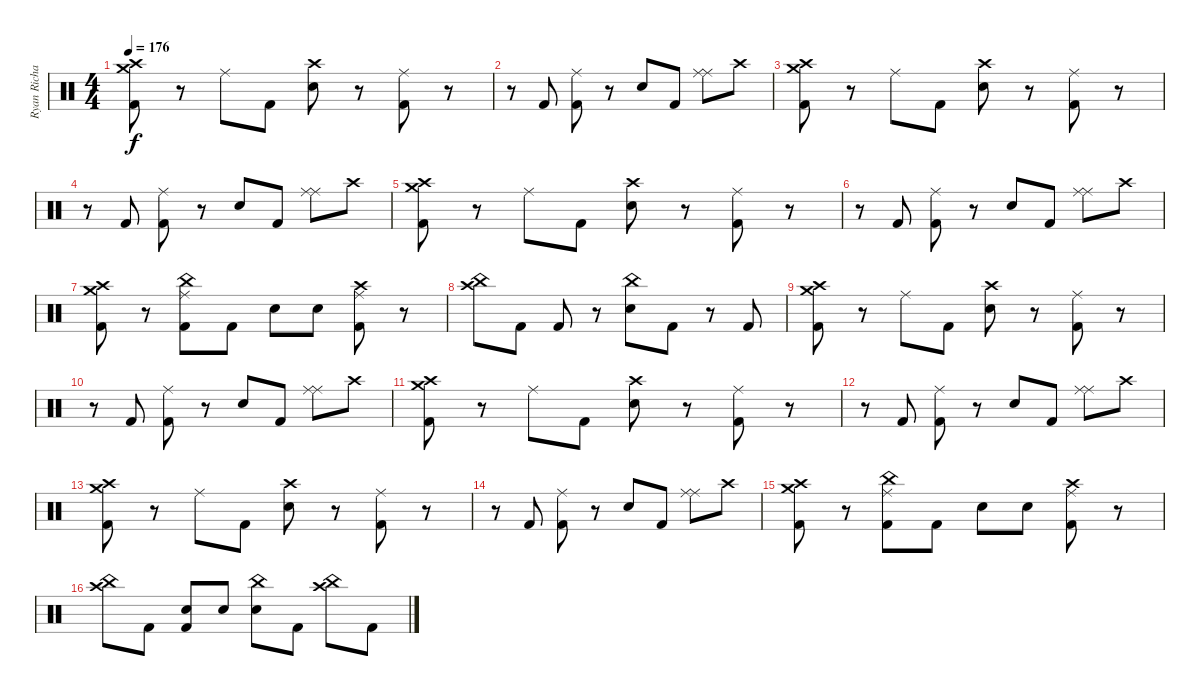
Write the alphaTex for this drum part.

\track ("Ryan Richards (drums)" "Ryan Richa") {instrument percussion}
\staff {score}
\articulation defaults
\ts (4 4)
\tempo 176
\clef neutral
\ks c
("Crash high (hit)" "Crash medium (hit)" "Kick (hit) 2").8{dy f} r.8 "Ride (middle)".8 "Kick (hit) 2".8 ("Crash high (hit)" "Snare (hit) 2").8 r.8 ("Ride (middle)" "Kick (hit) 2").8 r.8 |
r.8 "Kick (hit) 2".8 ("Ride (middle)" "Kick (hit) 2").8 r.8 "Snare (hit) 2".8 "Kick (hit) 2".8 ("Ride (middle)" "Ride (middle)").8 "Crash high (hit)".8 |
("Crash high (hit)" "Crash medium (hit)" "Kick (hit) 2").8 r.8 "Ride (middle)".8 "Kick (hit) 2".8 ("Crash high (hit)" "Snare (hit) 2").8 r.8 ("Ride (middle)" "Kick (hit) 2").8 r.8 |
r.8 "Kick (hit) 2".8 ("Ride (middle)" "Kick (hit) 2").8 r.8 "Snare (hit) 2".8 "Kick (hit) 2".8 ("Ride (middle)" "Ride (middle)").8 "Crash high (hit)".8 |
("Crash high (hit)" "Crash medium (hit)" "Kick (hit) 2").8 r.8 "Ride (middle)".8 "Kick (hit) 2".8 ("Crash high (hit)" "Snare (hit) 2").8 r.8 ("Ride (middle)" "Kick (hit) 2").8 r.8 |
r.8 "Kick (hit) 2".8 ("Ride (middle)" "Kick (hit) 2").8 r.8 "Snare (hit) 2".8 "Kick (hit) 2".8 ("Ride (middle)" "Ride (middle)").8 "Crash high (hit)".8 |
("Crash high (hit)" "Crash medium (hit)" "Kick (hit) 2").8 r.8 ("China (hit)" "Ride (middle)" "Kick (hit) 2").8 "Kick (hit) 2".8 "Snare (hit) 2".8 "Snare (hit) 2".8 ("Crash high (hit)" "Ride (middle)" "Kick (hit) 2").8 r.8 |
("Crash high (hit)" "China (hit)").8 "Kick (hit) 2".8 "Kick (hit) 2".8 r.8 ("China (hit)" "Snare (hit) 2").8 "Kick (hit) 2".8 r.8 "Kick (hit) 2".8 |
("Crash high (hit)" "Crash medium (hit)" "Kick (hit) 2").8 r.8 "Ride (middle)".8 "Kick (hit) 2".8 ("Crash high (hit)" "Snare (hit) 2").8 r.8 ("Ride (middle)" "Kick (hit) 2").8 r.8 |
r.8 "Kick (hit) 2".8 ("Ride (middle)" "Kick (hit) 2").8 r.8 "Snare (hit) 2".8 "Kick (hit) 2".8 ("Ride (middle)" "Ride (middle)").8 "Crash high (hit)".8 |
("Crash high (hit)" "Crash medium (hit)" "Kick (hit) 2").8 r.8 "Ride (middle)".8 "Kick (hit) 2".8 ("Crash high (hit)" "Snare (hit) 2").8 r.8 ("Ride (middle)" "Kick (hit) 2").8 r.8 |
r.8 "Kick (hit) 2".8 ("Ride (middle)" "Kick (hit) 2").8 r.8 "Snare (hit) 2".8 "Kick (hit) 2".8 ("Ride (middle)" "Ride (middle)").8 "Crash high (hit)".8 |
("Crash high (hit)" "Crash medium (hit)" "Kick (hit) 2").8 r.8 "Ride (middle)".8 "Kick (hit) 2".8 ("Crash high (hit)" "Snare (hit) 2").8 r.8 ("Ride (middle)" "Kick (hit) 2").8 r.8 |
r.8 "Kick (hit) 2".8 ("Ride (middle)" "Kick (hit) 2").8 r.8 "Snare (hit) 2".8 "Kick (hit) 2".8 ("Ride (middle)" "Ride (middle)").8 "Crash high (hit)".8 |
("Crash high (hit)" "Crash medium (hit)" "Kick (hit) 2").8 r.8 ("China (hit)" "Ride (middle)" "Kick (hit) 2").8 "Kick (hit) 2".8 "Snare (hit) 2".8 "Snare (hit) 2".8 ("Crash high (hit)" "Ride (middle)" "Kick (hit) 2").8 r.8 |
("Crash high (hit)" "China (hit)").8 "Kick (hit) 2".8 ("Snare (hit) 2" "Kick (hit) 2").8 "Snare (hit) 2".8 ("China (hit)" "Snare (hit) 2").8 "Kick (hit) 2".8 ("China (hit)" "Crash high (hit)").8 "Kick (hit) 2".8
